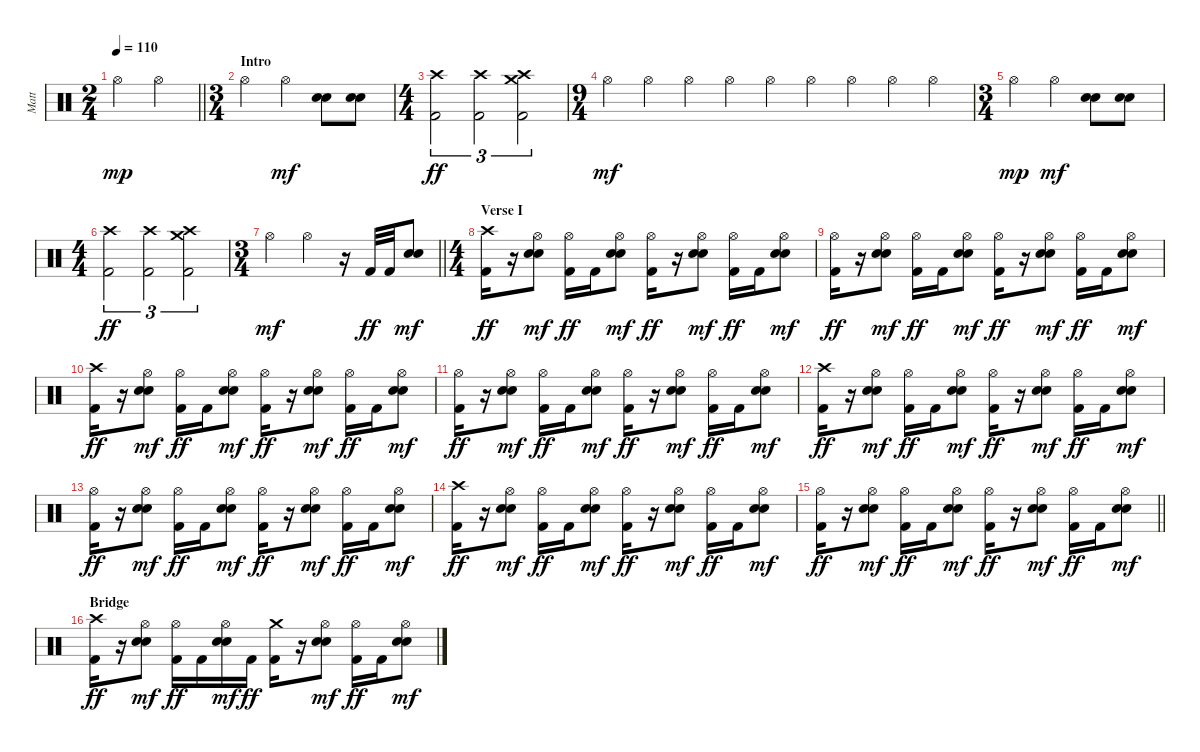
\track ("Matt" "Matt") {instrument percussion}
\staff {score}
\articulation defaults
\ts (2 4)
\tempo 110
\clef neutral
\barLineRight lightlight
\ks c "Hi-Hat (open)".4{dy mp} "Hi-Hat (open)".4
|
\ts (3 4)
\section ("" "Intro")
"Hi-Hat (open)".4 "Hi-Hat (open)".4{dy mf} ("Electric Snare (hit)" "Snare (hit) 2").8 ("Electric Snare (hit)" "Snare (hit) 2").8 |
\ts (4 4)
("Crash high (hit)" "Kick (hit) 2").2{tu (3 2) dy ff} ("Crash high (hit)" "Kick (hit) 2").2{tu (3 2)} ("Crash medium (hit)" "Crash high (hit)" "Kick (hit) 2").2{tu (3 2)} |
\ts (9 4)
"Hi-Hat (open)".4{dy mf} "Hi-Hat (open)".4 "Hi-Hat (open)".4 "Hi-Hat (open)".4 "Hi-Hat (open)".4 "Hi-Hat (open)".4 "Hi-Hat (open)".4 "Hi-Hat (open)".4 "Hi-Hat (open)".4 |
\ts (3 4)
"Hi-Hat (open)".4{dy mp} "Hi-Hat (open)".4{dy mf} ("Electric Snare (hit)" "Snare (hit) 2").8 ("Electric Snare (hit)" "Snare (hit) 2").8 |
\ts (4 4)
("Crash high (hit)" "Kick (hit) 2").2{tu (3 2) dy ff} ("Crash high (hit)" "Kick (hit) 2").2{tu (3 2)} ("Crash medium (hit)" "Crash high (hit)" "Kick (hit) 2").2{tu (3 2)} |
\ts (3 4)
\barLineRight lightlight "Hi-Hat (open)".4{dy mf} "Hi-Hat (open)".4
r.16 "Kick (hit) 2".32{dy ff} "Kick (hit) 2".32 ("Electric Snare (hit)" "Snare (hit) 2").8{dy mf} |
\ts (4 4)
\section ("" "Verse I")
("Crash high (hit)" "Kick (hit) 2").16{dy ff} r.16 ("Hi-Hat (open)" "Electric Snare (hit)" "Snare (hit) 2").8{dy mf} ("Hi-Hat (open)" "Kick (hit) 2").16{dy ff} "Kick (hit) 2".16 ("Hi-Hat (open)" "Electric Snare (hit)" "Snare (hit) 2").8{dy mf} ("Hi-Hat (open)" "Kick (hit) 2").16{dy ff} r.16 ("Hi-Hat (open)" "Electric Snare (hit)" "Snare (hit) 2").8{dy mf} ("Hi-Hat (open)" "Kick (hit) 2").16{dy ff} "Kick (hit) 2".16 ("Hi-Hat (open)" "Electric Snare (hit)" "Snare (hit) 2").8{dy mf} |
("Hi-Hat (open)" "Kick (hit) 2").16{dy ff} r.16 ("Hi-Hat (open)" "Electric Snare (hit)" "Snare (hit) 2").8{dy mf} ("Hi-Hat (open)" "Kick (hit) 2").16{dy ff} "Kick (hit) 2".16 ("Hi-Hat (open)" "Electric Snare (hit)" "Snare (hit) 2").8{dy mf} ("Hi-Hat (open)" "Kick (hit) 2").16{dy ff} r.16 ("Hi-Hat (open)" "Electric Snare (hit)" "Snare (hit) 2").8{dy mf} ("Hi-Hat (open)" "Kick (hit) 2").16{dy ff} "Kick (hit) 2".16 ("Hi-Hat (open)" "Electric Snare (hit)" "Snare (hit) 2").8{dy mf} |
("Crash high (hit)" "Kick (hit) 2").16{dy ff} r.16 ("Hi-Hat (open)" "Electric Snare (hit)" "Snare (hit) 2").8{dy mf} ("Hi-Hat (open)" "Kick (hit) 2").16{dy ff} "Kick (hit) 2".16 ("Hi-Hat (open)" "Electric Snare (hit)" "Snare (hit) 2").8{dy mf} ("Hi-Hat (open)" "Kick (hit) 2").16{dy ff} r.16 ("Hi-Hat (open)" "Electric Snare (hit)" "Snare (hit) 2").8{dy mf} ("Hi-Hat (open)" "Kick (hit) 2").16{dy ff} "Kick (hit) 2".16 ("Hi-Hat (open)" "Electric Snare (hit)" "Snare (hit) 2").8{dy mf} |
("Hi-Hat (open)" "Kick (hit) 2").16{dy ff} r.16 ("Hi-Hat (open)" "Electric Snare (hit)" "Snare (hit) 2").8{dy mf} ("Hi-Hat (open)" "Kick (hit) 2").16{dy ff} "Kick (hit) 2".16 ("Hi-Hat (open)" "Electric Snare (hit)" "Snare (hit) 2").8{dy mf} ("Hi-Hat (open)" "Kick (hit) 2").16{dy ff} r.16 ("Hi-Hat (open)" "Electric Snare (hit)" "Snare (hit) 2").8{dy mf} ("Hi-Hat (open)" "Kick (hit) 2").16{dy ff} "Kick (hit) 2".16 ("Hi-Hat (open)" "Electric Snare (hit)" "Snare (hit) 2").8{dy mf} |
("Crash high (hit)" "Kick (hit) 2").16{dy ff} r.16 ("Hi-Hat (open)" "Electric Snare (hit)" "Snare (hit) 2").8{dy mf} ("Hi-Hat (open)" "Kick (hit) 2").16{dy ff} "Kick (hit) 2".16 ("Hi-Hat (open)" "Electric Snare (hit)" "Snare (hit) 2").8{dy mf} ("Hi-Hat (open)" "Kick (hit) 2").16{dy ff} r.16 ("Hi-Hat (open)" "Electric Snare (hit)" "Snare (hit) 2").8{dy mf} ("Hi-Hat (open)" "Kick (hit) 2").16{dy ff} "Kick (hit) 2".16 ("Hi-Hat (open)" "Electric Snare (hit)" "Snare (hit) 2").8{dy mf} |
("Hi-Hat (open)" "Kick (hit) 2").16{dy ff} r.16 ("Hi-Hat (open)" "Electric Snare (hit)" "Snare (hit) 2").8{dy mf} ("Hi-Hat (open)" "Kick (hit) 2").16{dy ff} "Kick (hit) 2".16 ("Hi-Hat (open)" "Electric Snare (hit)" "Snare (hit) 2").8{dy mf} ("Hi-Hat (open)" "Kick (hit) 2").16{dy ff} r.16 ("Hi-Hat (open)" "Electric Snare (hit)" "Snare (hit) 2").8{dy mf} ("Hi-Hat (open)" "Kick (hit) 2").16{dy ff} "Kick (hit) 2".16 ("Hi-Hat (open)" "Electric Snare (hit)" "Snare (hit) 2").8{dy mf} |
("Crash high (hit)" "Kick (hit) 2").16{dy ff} r.16 ("Hi-Hat (open)" "Electric Snare (hit)" "Snare (hit) 2").8{dy mf} ("Hi-Hat (open)" "Kick (hit) 2").16{dy ff} "Kick (hit) 2".16 ("Hi-Hat (open)" "Electric Snare (hit)" "Snare (hit) 2").8{dy mf} ("Hi-Hat (open)" "Kick (hit) 2").16{dy ff} r.16 ("Hi-Hat (open)" "Electric Snare (hit)" "Snare (hit) 2").8{dy mf} ("Hi-Hat (open)" "Kick (hit) 2").16{dy ff} "Kick (hit) 2".16 ("Hi-Hat (open)" "Electric Snare (hit)" "Snare (hit) 2").8{dy mf} |
\barLineRight lightlight
("Hi-Hat (open)" "Kick (hit) 2").16{dy ff} r.16 ("Hi-Hat (open)" "Electric Snare (hit)" "Snare (hit) 2").8{dy mf} ("Hi-Hat (open)" "Kick (hit) 2").16{dy ff} "Kick (hit) 2".16 ("Hi-Hat (open)" "Electric Snare (hit)" "Snare (hit) 2").8{dy mf} ("Hi-Hat (open)" "Kick (hit) 2").16{dy ff} r.16 ("Hi-Hat (open)" "Electric Snare (hit)" "Snare (hit) 2").8{dy mf} ("Hi-Hat (open)" "Kick (hit) 2").16{dy ff} "Kick (hit) 2".16 ("Hi-Hat (open)" "Electric Snare (hit)" "Snare (hit) 2").8{dy mf} |
\section ("" "Bridge")
("Crash high (hit)" "Kick (hit) 2").16{dy ff} r.16 ("Hi-Hat (open)" "Electric Snare (hit)" "Snare (hit) 2").8{dy mf} ("Hi-Hat (open)" "Kick (hit) 2").16{dy ff} "Kick (hit) 2".16 ("Hi-Hat (open)" "Electric Snare (hit)" "Snare (hit) 2").16{dy mf} "Kick (hit) 2".16{dy ff} ("Crash medium (hit)" "Kick (hit) 2").16 r.16 ("Hi-Hat (open)" "Electric Snare (hit)" "Snare (hit) 2").8{dy mf} ("Hi-Hat (open)" "Kick (hit) 2").16{dy ff} "Kick (hit) 2".16 ("Hi-Hat (open)" "Electric Snare (hit)" "Snare (hit) 2").8{dy mf}
